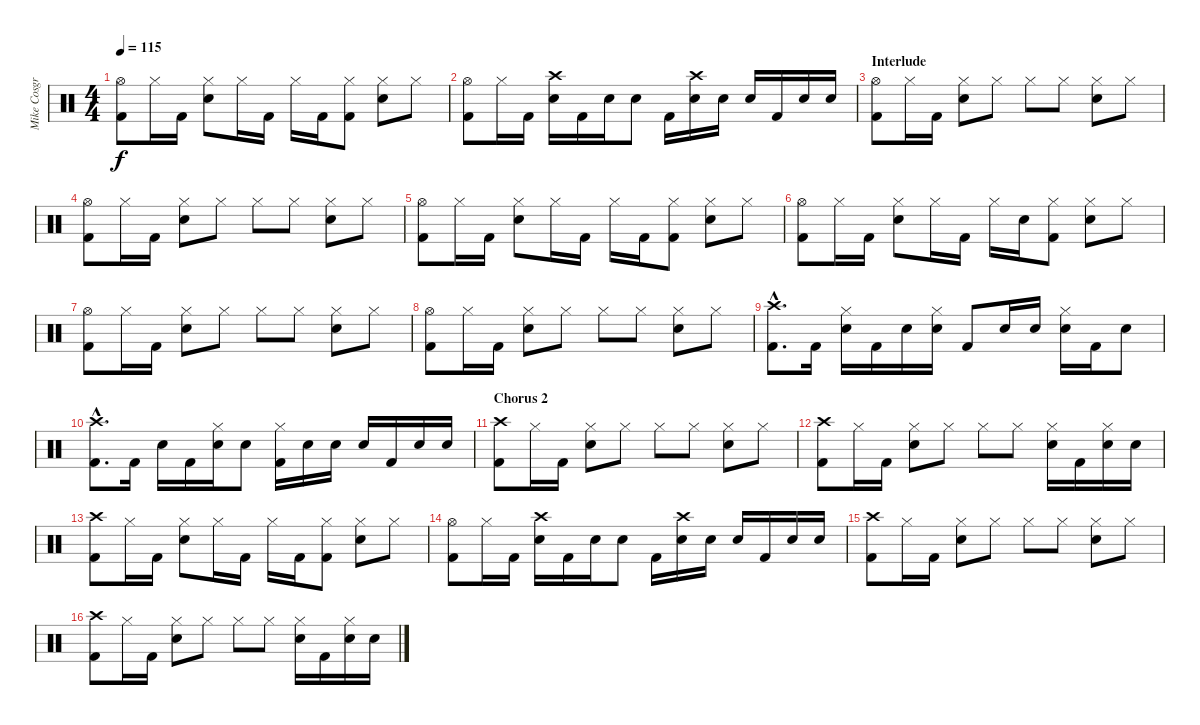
\track ("Mike Cosgrove" "Mike Cosgr") {instrument percussion}
\staff {score}
\articulation defaults
\ts (4 4)
\tempo 115
\clef neutral
\ks c
("Hi-Hat (open)" "Kick (hit) 2").8{dy f} "Hi-Hat (closed)".16 "Kick (hit) 2".16 ("Hi-Hat (closed)" "Electric Snare (hit)").8 "Hi-Hat (closed)".16 "Kick (hit) 2".16 "Hi-Hat (closed)".16 "Kick (hit) 2".16 ("Hi-Hat (closed)" "Kick (hit) 2").8 ("Hi-Hat (closed)" "Electric Snare (hit)").8 "Hi-Hat (closed)".8 |
("Hi-Hat (open)" "Kick (hit) 2").8 "Hi-Hat (closed)".16 "Kick (hit) 2".16 ("Crash high (hit)" "Electric Snare (hit)").16 "Kick (hit) 2".16 "Electric Snare (hit)".16 "Electric Snare (hit)".8 "Kick (hit) 2".16 ("Crash high (hit)" "Electric Snare (hit)").16 "Electric Snare (hit)".16 "Electric Snare (hit)".16 "Kick (hit) 2".16 "Electric Snare (hit)".16 "Electric Snare (hit)".16 |
\section ("" "Interlude")
("Hi-Hat (open)" "Kick (hit) 2").8 "Hi-Hat (closed)".16 "Kick (hit) 2".16 ("Hi-Hat (closed)" "Electric Snare (hit)").8 "Hi-Hat (closed)".8 "Hi-Hat (closed)".8 "Hi-Hat (closed)".8 ("Hi-Hat (closed)" "Electric Snare (hit)").8 "Hi-Hat (closed)".8 |
("Hi-Hat (open)" "Kick (hit) 2").8 "Hi-Hat (closed)".16 "Kick (hit) 2".16 ("Hi-Hat (closed)" "Electric Snare (hit)").8 "Hi-Hat (closed)".8 "Hi-Hat (closed)".8 "Hi-Hat (closed)".8 ("Hi-Hat (closed)" "Electric Snare (hit)").8 "Hi-Hat (closed)".8 |
("Hi-Hat (open)" "Kick (hit) 2").8 "Hi-Hat (closed)".16 "Kick (hit) 2".16 ("Hi-Hat (closed)" "Electric Snare (hit)").8 "Hi-Hat (closed)".16 "Kick (hit) 2".16 "Hi-Hat (closed)".16 "Kick (hit) 2".16 ("Hi-Hat (closed)" "Kick (hit) 2").8 ("Hi-Hat (closed)" "Electric Snare (hit)").8 "Hi-Hat (closed)".8 |
("Hi-Hat (open)" "Kick (hit) 2").8 "Hi-Hat (closed)".16 "Kick (hit) 2".16 ("Hi-Hat (closed)" "Electric Snare (hit)").8 "Hi-Hat (closed)".16 "Kick (hit) 2".16 "Hi-Hat (closed)".16 "Electric Snare (hit)".16 ("Hi-Hat (closed)" "Kick (hit) 2").8 ("Hi-Hat (closed)" "Electric Snare (hit)").8 "Hi-Hat (closed)".8 |
("Hi-Hat (open)" "Kick (hit) 2").8 "Hi-Hat (closed)".16 "Kick (hit) 2".16 ("Hi-Hat (closed)" "Electric Snare (hit)").8 "Hi-Hat (closed)".8 "Hi-Hat (closed)".8 "Hi-Hat (closed)".8 ("Hi-Hat (closed)" "Electric Snare (hit)").8 "Hi-Hat (closed)".8 |
("Hi-Hat (open)" "Kick (hit) 2").8 "Hi-Hat (closed)".16 "Kick (hit) 2".16 ("Hi-Hat (closed)" "Electric Snare (hit)").8 "Hi-Hat (closed)".8 "Hi-Hat (closed)".8 "Hi-Hat (closed)".8 ("Hi-Hat (closed)" "Electric Snare (hit)").8 "Hi-Hat (closed)".8 |
("Crash high (hit)"{hac} "Kick (hit) 2"{hac}).8{d} "Kick (hit) 2".16 ("Hi-Hat (closed)" "Electric Snare (hit)").16 "Kick (hit) 2".16 "Electric Snare (hit)".16 ("Hi-Hat (closed)" "Electric Snare (hit)").16 "Kick (hit) 2".8 "Electric Snare (hit)".16 "Electric Snare (hit)".16 ("Hi-Hat (closed)" "Electric Snare (hit)").16 "Kick (hit) 2".16 "Electric Snare (hit)".8 |
("Crash high (hit)"{hac} "Kick (hit) 2"{hac}).8{d} "Kick (hit) 2".16 "Electric Snare (hit)".16 "Kick (hit) 2".16 ("Hi-Hat (closed)" "Electric Snare (hit)").16 "Electric Snare (hit)".8 ("Hi-Hat (closed)" "Kick (hit) 2").16 "Electric Snare (hit)".16 "Electric Snare (hit)".16 "Electric Snare (hit)".16 "Kick (hit) 2".16 "Electric Snare (hit)".16 "Electric Snare (hit)".16 |
\section ("" "Chorus 2")
("Crash high (hit)" "Kick (hit) 2").8 "Hi-Hat (closed)".16 "Kick (hit) 2".16 ("Hi-Hat (closed)" "Electric Snare (hit)").8 "Hi-Hat (closed)".8 "Hi-Hat (closed)".8 "Hi-Hat (closed)".8 ("Hi-Hat (closed)" "Electric Snare (hit)").8 "Hi-Hat (closed)".8 |
("Crash high (hit)" "Kick (hit) 2").8 "Hi-Hat (closed)".16 "Kick (hit) 2".16 ("Hi-Hat (closed)" "Electric Snare (hit)").8 "Hi-Hat (closed)".8 "Hi-Hat (closed)".8 "Hi-Hat (closed)".8 ("Hi-Hat (closed)" "Electric Snare (hit)").16 "Kick (hit) 2".16 ("Hi-Hat (closed)" "Electric Snare (hit)").16 "Electric Snare (hit)".16 |
("Crash high (hit)" "Kick (hit) 2").8 "Hi-Hat (closed)".16 "Kick (hit) 2".16 ("Hi-Hat (closed)" "Electric Snare (hit)").8 "Hi-Hat (closed)".16 "Kick (hit) 2".16 "Hi-Hat (closed)".16 "Kick (hit) 2".16 ("Hi-Hat (closed)" "Kick (hit) 2").8 ("Hi-Hat (closed)" "Electric Snare (hit)").8 "Hi-Hat (closed)".8 |
("Hi-Hat (open)" "Kick (hit) 2").8 "Hi-Hat (closed)".16 "Kick (hit) 2".16 ("Crash high (hit)" "Electric Snare (hit)").16 "Kick (hit) 2".16 "Electric Snare (hit)".16 "Electric Snare (hit)".8 "Kick (hit) 2".16 ("Crash high (hit)" "Electric Snare (hit)").16 "Electric Snare (hit)".16 "Electric Snare (hit)".16 "Kick (hit) 2".16 "Electric Snare (hit)".16 "Electric Snare (hit)".16 |
("Crash high (hit)" "Kick (hit) 2").8 "Hi-Hat (closed)".16 "Kick (hit) 2".16 ("Hi-Hat (closed)" "Electric Snare (hit)").8 "Hi-Hat (closed)".8 "Hi-Hat (closed)".8 "Hi-Hat (closed)".8 ("Hi-Hat (closed)" "Electric Snare (hit)").8 "Hi-Hat (closed)".8 |
("Crash high (hit)" "Kick (hit) 2").8 "Hi-Hat (closed)".16 "Kick (hit) 2".16 ("Hi-Hat (closed)" "Electric Snare (hit)").8 "Hi-Hat (closed)".8 "Hi-Hat (closed)".8 "Hi-Hat (closed)".8 ("Hi-Hat (closed)" "Electric Snare (hit)").16 "Kick (hit) 2".16 ("Hi-Hat (closed)" "Electric Snare (hit)").16 "Electric Snare (hit)".16
